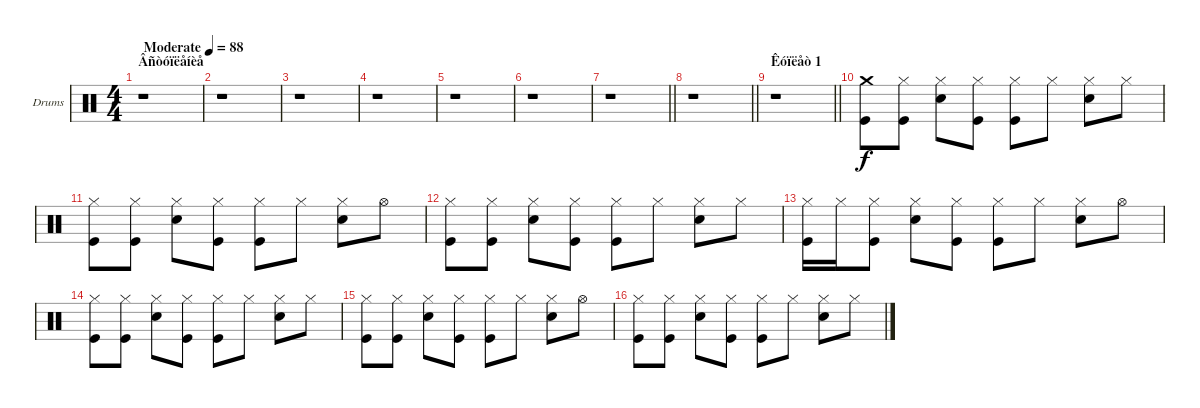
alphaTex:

\bracketExtendMode groupsimilarinstruments
\firstSystemTrackNameOrientation horizontal
\otherSystemsTrackNameOrientation horizontal
\track ("Drumkit" "Drums") {instrument percussion}
\staff {score}
\articulation defaults
\ts (4 4)
\beaming (8 2 2 2 2)
\section ("" "Âñòóïëåíèå")
\tempo (88 "Moderate")
\clef neutral
\ks c
r.1{dy f} |
r.1 |
r.1 |
r.1 |
r.1 |
r.1 |
\barLineRight lightlight
r.1 |
\barLineRight lightlight
r.1 |
\section ("" "Êóïëåò 1")
\barLineRight lightlight
r.1 |
("Kick (hit)" "Crash medium (hit)").8 ("Kick (hit)" "Hi-Hat (closed)").8 ("Snare (hit) 2" "Hi-Hat (closed)").8 ("Kick (hit)" "Hi-Hat (closed)").8 ("Kick (hit)" "Hi-Hat (closed)").8 "Hi-Hat (closed)".8 ("Snare (hit) 2" "Hi-Hat (closed)").8 "Hi-Hat (closed)".8 |
("Kick (hit)" "Hi-Hat (closed)").8 ("Kick (hit)" "Hi-Hat (closed)").8 ("Snare (hit) 2" "Hi-Hat (closed)").8 ("Kick (hit)" "Hi-Hat (closed)").8 ("Kick (hit)" "Hi-Hat (closed)").8 "Hi-Hat (closed)".8 ("Snare (hit) 2" "Hi-Hat (closed)").8 "Hi-Hat (open)".8 |
("Kick (hit)" "Hi-Hat (closed)").8 ("Kick (hit)" "Hi-Hat (closed)").8 ("Snare (hit) 2" "Hi-Hat (closed)").8 ("Kick (hit)" "Hi-Hat (closed)").8 ("Kick (hit)" "Hi-Hat (closed)").8 "Hi-Hat (closed)".8 ("Snare (hit) 2" "Hi-Hat (closed)").8 "Hi-Hat (closed)".8 |
("Kick (hit)" "Hi-Hat (closed)").16 "Hi-Hat (closed)".16 ("Kick (hit)" "Hi-Hat (closed)").8 ("Snare (hit) 2" "Hi-Hat (closed)").8 ("Kick (hit)" "Hi-Hat (closed)").8 ("Kick (hit)" "Hi-Hat (closed)").8 "Hi-Hat (closed)".8 ("Snare (hit) 2" "Hi-Hat (closed)").8 "Hi-Hat (open)".8 |
("Kick (hit)" "Hi-Hat (closed)").8 ("Kick (hit)" "Hi-Hat (closed)").8 ("Snare (hit) 2" "Hi-Hat (closed)").8 ("Kick (hit)" "Hi-Hat (closed)").8 ("Kick (hit)" "Hi-Hat (closed)").8 "Hi-Hat (closed)".8 ("Snare (hit) 2" "Hi-Hat (closed)").8 "Hi-Hat (closed)".8 |
("Kick (hit)" "Hi-Hat (closed)").8 ("Kick (hit)" "Hi-Hat (closed)").8 ("Snare (hit) 2" "Hi-Hat (closed)").8 ("Kick (hit)" "Hi-Hat (closed)").8 ("Kick (hit)" "Hi-Hat (closed)").8 "Hi-Hat (closed)".8 ("Snare (hit) 2" "Hi-Hat (closed)").8 "Hi-Hat (open)".8 |
("Kick (hit)" "Hi-Hat (closed)").8 ("Kick (hit)" "Hi-Hat (closed)").8 ("Snare (hit) 2" "Hi-Hat (closed)").8 ("Kick (hit)" "Hi-Hat (closed)").8 ("Kick (hit)" "Hi-Hat (closed)").8 "Hi-Hat (closed)".8 ("Snare (hit) 2" "Hi-Hat (closed)").8 "Hi-Hat (closed)".8
